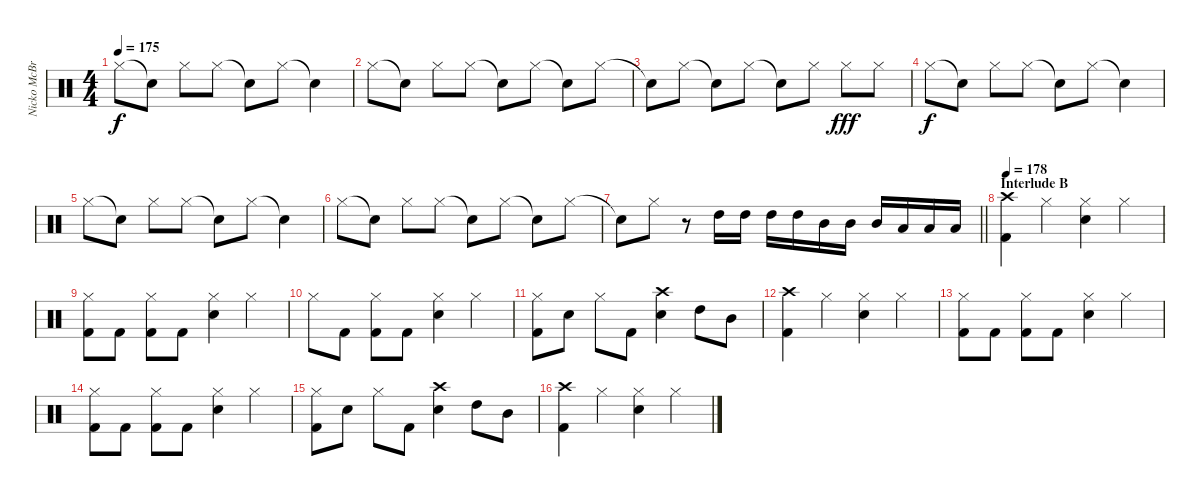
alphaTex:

\track ("Nicko McBrian" "Nicko McBr") {instrument percussion}
\staff {score}
\articulation defaults
\ts (4 4)
\tempo 175
\clef neutral
\ks c "Hi-Hat (closed)".8{dy f} "Snare (hit)"{t}.8 "Hi-Hat (closed)".8 "Hi-Hat (closed)".8 "Snare (hit)"{t}.8 "Hi-Hat (closed)".8 "Snare (hit)"{t}.4
|
"Hi-Hat (closed)".8 "Snare (hit)"{t}.8 "Hi-Hat (closed)".8 "Hi-Hat (closed)".8 "Snare (hit)"{t}.8 "Hi-Hat (closed)".8 "Snare (hit)"{t}.8 "Hi-Hat (closed)".8 |
"Snare (hit)"{t}.8 "Hi-Hat (closed)".8 "Snare (hit)"{t}.8 "Hi-Hat (closed)".8 "Snare (hit)"{t}.8 "Hi-Hat (closed)".8 "Hi-Hat (closed)".8{dy fff} "Hi-Hat (closed)".8 |
"Hi-Hat (closed)".8{dy f} "Snare (hit)"{t}.8 "Hi-Hat (closed)".8 "Hi-Hat (closed)".8 "Snare (hit)"{t}.8 "Hi-Hat (closed)".8 "Snare (hit)"{t}.4 |
"Hi-Hat (closed)".8 "Snare (hit)"{t}.8 "Hi-Hat (closed)".8 "Hi-Hat (closed)".8 "Snare (hit)"{t}.8 "Hi-Hat (closed)".8 "Snare (hit)"{t}.4 |
"Hi-Hat (closed)".8 "Snare (hit)"{t}.8 "Hi-Hat (closed)".8 "Hi-Hat (closed)".8 "Snare (hit)"{t}.8 "Hi-Hat (closed)".8 "Snare (hit)"{t}.8 "Hi-Hat (closed)".8 |
\barLineRight lightlight "Snare (hit)"{t}.8 "Hi-Hat (closed)".8
r.8 "High Tom (hit)".16 "High Tom (hit)".16 "High Tom (hit)".16 "High Tom (hit)".16 "Mid Tom (hit)".16 "Mid Tom (hit)".16 "Mid Tom (hit)".16 "Low Tom (hit)".16 "Low Tom (hit)".16 "Low Tom (hit)".16 |
\section ("" "Interlude B")
\tempo 178
("Crash high (hit)" "Kick (hit) 2").4 "Hi-Hat (closed)".4 ("Hi-Hat (closed)" "Electric Snare (hit)").4 "Hi-Hat (closed)".4 |
("Hi-Hat (closed)" "Kick (hit) 2").8 "Kick (hit) 2".8 ("Hi-Hat (closed)" "Kick (hit) 2").8 "Kick (hit) 2".8 ("Hi-Hat (closed)" "Electric Snare (hit)").4 "Hi-Hat (closed)".4 |
"Hi-Hat (closed)".8 "Kick (hit) 2".8 ("Hi-Hat (closed)" "Kick (hit) 2").8 "Kick (hit) 2".8 ("Hi-Hat (closed)" "Electric Snare (hit)").4 "Hi-Hat (closed)".4 |
("Hi-Hat (closed)" "Kick (hit) 2").8 "Electric Snare (hit)".8 "Hi-Hat (closed)".8 "Kick (hit) 2".8 ("Crash high (hit)" "Electric Snare (hit)").4 "High Tom (hit)".8 "Mid Tom (hit)".8 |
("Crash high (hit)" "Kick (hit) 2").4 "Hi-Hat (closed)".4 ("Hi-Hat (closed)" "Electric Snare (hit)").4 "Hi-Hat (closed)".4 |
("Hi-Hat (closed)" "Kick (hit) 2").8 "Kick (hit) 2".8 ("Hi-Hat (closed)" "Kick (hit) 2").8 "Kick (hit) 2".8 ("Hi-Hat (closed)" "Electric Snare (hit)").4 "Hi-Hat (closed)".4 |
("Hi-Hat (closed)" "Kick (hit) 2").8 "Kick (hit) 2".8 ("Hi-Hat (closed)" "Kick (hit) 2").8 "Kick (hit) 2".8 ("Hi-Hat (closed)" "Electric Snare (hit)").4 "Hi-Hat (closed)".4 |
("Hi-Hat (closed)" "Kick (hit) 2").8 "Electric Snare (hit)".8 "Hi-Hat (closed)".8 "Kick (hit) 2".8 ("Crash high (hit)" "Electric Snare (hit)").4 "High Tom (hit)".8 "Mid Tom (hit)".8 |
("Crash high (hit)" "Kick (hit) 2").4 "Hi-Hat (closed)".4 ("Hi-Hat (closed)" "Electric Snare (hit)").4 "Hi-Hat (closed)".4
